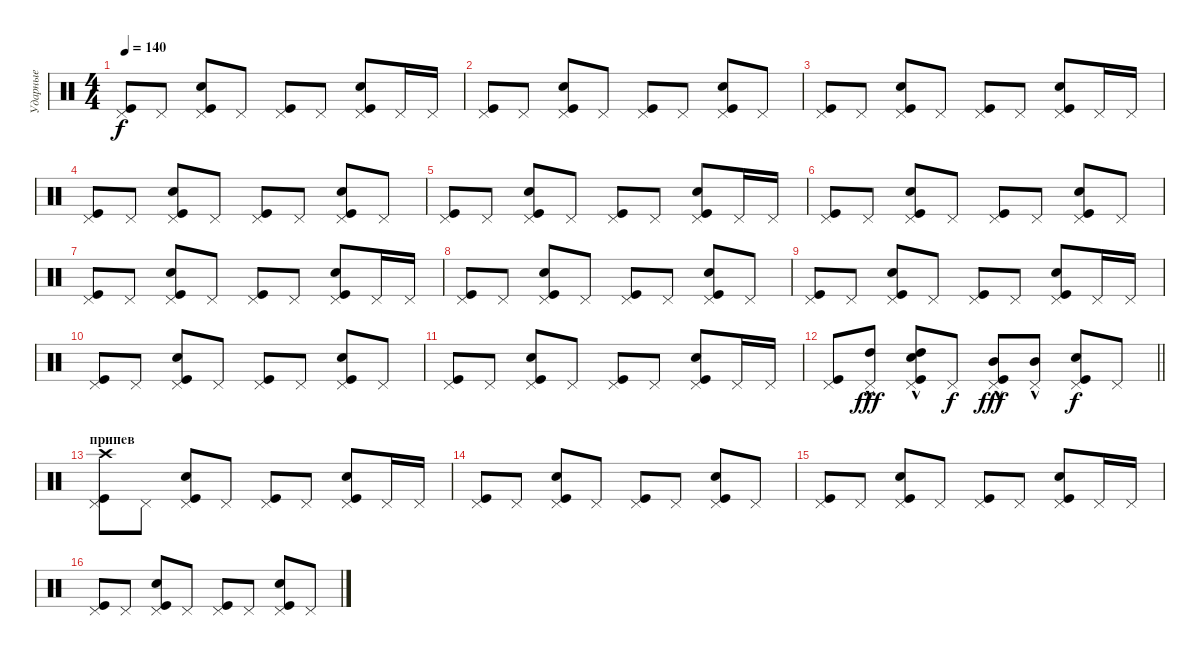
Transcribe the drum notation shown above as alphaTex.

\track ("Ударные" "Ударные") {instrument percussion}
\staff {score}
\articulation defaults
\ts (4 4)
\tempo 140
\clef neutral
\ks c
("Pedal Hi-Hat (hit)" "Kick (hit)").8{dy f} "Pedal Hi-Hat (hit)".8 ("Pedal Hi-Hat (hit)" "Kick (hit)" "Snare (hit) 2").8 "Pedal Hi-Hat (hit)".8 ("Pedal Hi-Hat (hit)" "Kick (hit)").8 "Pedal Hi-Hat (hit)".8 ("Pedal Hi-Hat (hit)" "Kick (hit)" "Snare (hit) 2").8 "Pedal Hi-Hat (hit)".16 "Pedal Hi-Hat (hit)".16 |
("Pedal Hi-Hat (hit)" "Kick (hit)").8 "Pedal Hi-Hat (hit)".8 ("Pedal Hi-Hat (hit)" "Kick (hit)" "Snare (hit) 2").8 "Pedal Hi-Hat (hit)".8 ("Pedal Hi-Hat (hit)" "Kick (hit)").8 "Pedal Hi-Hat (hit)".8 ("Pedal Hi-Hat (hit)" "Kick (hit)" "Snare (hit) 2").8 "Pedal Hi-Hat (hit)".8 |
("Pedal Hi-Hat (hit)" "Kick (hit)").8 "Pedal Hi-Hat (hit)".8 ("Pedal Hi-Hat (hit)" "Kick (hit)" "Snare (hit) 2").8 "Pedal Hi-Hat (hit)".8 ("Pedal Hi-Hat (hit)" "Kick (hit)").8 "Pedal Hi-Hat (hit)".8 ("Pedal Hi-Hat (hit)" "Kick (hit)" "Snare (hit) 2").8 "Pedal Hi-Hat (hit)".16 "Pedal Hi-Hat (hit)".16 |
("Pedal Hi-Hat (hit)" "Kick (hit)").8 "Pedal Hi-Hat (hit)".8 ("Pedal Hi-Hat (hit)" "Kick (hit)" "Snare (hit) 2").8 "Pedal Hi-Hat (hit)".8 ("Pedal Hi-Hat (hit)" "Kick (hit)").8 "Pedal Hi-Hat (hit)".8 ("Pedal Hi-Hat (hit)" "Kick (hit)" "Snare (hit) 2").8 "Pedal Hi-Hat (hit)".8 |
("Pedal Hi-Hat (hit)" "Kick (hit)").8 "Pedal Hi-Hat (hit)".8 ("Pedal Hi-Hat (hit)" "Kick (hit)" "Snare (hit) 2").8 "Pedal Hi-Hat (hit)".8 ("Pedal Hi-Hat (hit)" "Kick (hit)").8 "Pedal Hi-Hat (hit)".8 ("Pedal Hi-Hat (hit)" "Kick (hit)" "Snare (hit) 2").8 "Pedal Hi-Hat (hit)".16 "Pedal Hi-Hat (hit)".16 |
("Pedal Hi-Hat (hit)" "Kick (hit)").8 "Pedal Hi-Hat (hit)".8 ("Pedal Hi-Hat (hit)" "Kick (hit)" "Snare (hit) 2").8 "Pedal Hi-Hat (hit)".8 ("Pedal Hi-Hat (hit)" "Kick (hit)").8 "Pedal Hi-Hat (hit)".8 ("Pedal Hi-Hat (hit)" "Kick (hit)" "Snare (hit) 2").8 "Pedal Hi-Hat (hit)".8 |
("Pedal Hi-Hat (hit)" "Kick (hit)").8 "Pedal Hi-Hat (hit)".8 ("Pedal Hi-Hat (hit)" "Kick (hit)" "Snare (hit) 2").8 "Pedal Hi-Hat (hit)".8 ("Pedal Hi-Hat (hit)" "Kick (hit)").8 "Pedal Hi-Hat (hit)".8 ("Pedal Hi-Hat (hit)" "Kick (hit)" "Snare (hit) 2").8 "Pedal Hi-Hat (hit)".16 "Pedal Hi-Hat (hit)".16 |
("Pedal Hi-Hat (hit)" "Kick (hit)").8 "Pedal Hi-Hat (hit)".8 ("Pedal Hi-Hat (hit)" "Kick (hit)" "Snare (hit) 2").8 "Pedal Hi-Hat (hit)".8 ("Pedal Hi-Hat (hit)" "Kick (hit)").8 "Pedal Hi-Hat (hit)".8 ("Pedal Hi-Hat (hit)" "Kick (hit)" "Snare (hit) 2").8 "Pedal Hi-Hat (hit)".8 |
("Pedal Hi-Hat (hit)" "Kick (hit)").8 "Pedal Hi-Hat (hit)".8 ("Pedal Hi-Hat (hit)" "Kick (hit)" "Snare (hit) 2").8 "Pedal Hi-Hat (hit)".8 ("Pedal Hi-Hat (hit)" "Kick (hit)").8 "Pedal Hi-Hat (hit)".8 ("Pedal Hi-Hat (hit)" "Kick (hit)" "Snare (hit) 2").8 "Pedal Hi-Hat (hit)".16 "Pedal Hi-Hat (hit)".16 |
("Pedal Hi-Hat (hit)" "Kick (hit)").8 "Pedal Hi-Hat (hit)".8 ("Pedal Hi-Hat (hit)" "Kick (hit)" "Snare (hit) 2").8 "Pedal Hi-Hat (hit)".8 ("Pedal Hi-Hat (hit)" "Kick (hit)").8 "Pedal Hi-Hat (hit)".8 ("Pedal Hi-Hat (hit)" "Kick (hit)" "Snare (hit) 2").8 "Pedal Hi-Hat (hit)".8 |
("Pedal Hi-Hat (hit)" "Kick (hit)").8 "Pedal Hi-Hat (hit)".8 ("Pedal Hi-Hat (hit)" "Kick (hit)" "Snare (hit) 2").8 "Pedal Hi-Hat (hit)".8 ("Pedal Hi-Hat (hit)" "Kick (hit)").8 "Pedal Hi-Hat (hit)".8 ("Pedal Hi-Hat (hit)" "Kick (hit)" "Snare (hit) 2").8 "Pedal Hi-Hat (hit)".16 "Pedal Hi-Hat (hit)".16 |
\barLineRight lightlight
("Pedal Hi-Hat (hit)" "Kick (hit)").8 ("Pedal Hi-Hat (hit)" "High Tom (hit)"{hac}).8{dy fff} ("Pedal Hi-Hat (hit)" "Kick (hit)" "Snare (hit) 2" "High Tom (hit)"{hac}).8 "Pedal Hi-Hat (hit)".8{dy f} ("Pedal Hi-Hat (hit)" "Kick (hit)" "Mid Tom (hit)"{hac}).8{dy fff} ("Pedal Hi-Hat (hit)" "Mid Tom (hit)"{hac}).8 ("Pedal Hi-Hat (hit)" "Kick (hit)" "Snare (hit) 2").8{dy f} "Pedal Hi-Hat (hit)".8 |
\section ("" "припев")
("Pedal Hi-Hat (hit)" "Kick (hit)" "Crash high (hit)").8 "Pedal Hi-Hat (hit)".8 ("Pedal Hi-Hat (hit)" "Kick (hit)" "Snare (hit) 2").8 "Pedal Hi-Hat (hit)".8 ("Pedal Hi-Hat (hit)" "Kick (hit)").8 "Pedal Hi-Hat (hit)".8 ("Pedal Hi-Hat (hit)" "Kick (hit)" "Snare (hit) 2").8 "Pedal Hi-Hat (hit)".16 "Pedal Hi-Hat (hit)".16 |
("Pedal Hi-Hat (hit)" "Kick (hit)").8 "Pedal Hi-Hat (hit)".8 ("Pedal Hi-Hat (hit)" "Kick (hit)" "Snare (hit) 2").8 "Pedal Hi-Hat (hit)".8 ("Pedal Hi-Hat (hit)" "Kick (hit)").8 "Pedal Hi-Hat (hit)".8 ("Pedal Hi-Hat (hit)" "Kick (hit)" "Snare (hit) 2").8 "Pedal Hi-Hat (hit)".8 |
("Pedal Hi-Hat (hit)" "Kick (hit)").8 "Pedal Hi-Hat (hit)".8 ("Pedal Hi-Hat (hit)" "Kick (hit)" "Snare (hit) 2").8 "Pedal Hi-Hat (hit)".8 ("Pedal Hi-Hat (hit)" "Kick (hit)").8 "Pedal Hi-Hat (hit)".8 ("Pedal Hi-Hat (hit)" "Kick (hit)" "Snare (hit) 2").8 "Pedal Hi-Hat (hit)".16 "Pedal Hi-Hat (hit)".16 |
("Pedal Hi-Hat (hit)" "Kick (hit)").8 "Pedal Hi-Hat (hit)".8 ("Pedal Hi-Hat (hit)" "Kick (hit)" "Snare (hit) 2").8 "Pedal Hi-Hat (hit)".8 ("Pedal Hi-Hat (hit)" "Kick (hit)").8 "Pedal Hi-Hat (hit)".8 ("Pedal Hi-Hat (hit)" "Kick (hit)" "Snare (hit) 2").8 "Pedal Hi-Hat (hit)".8
